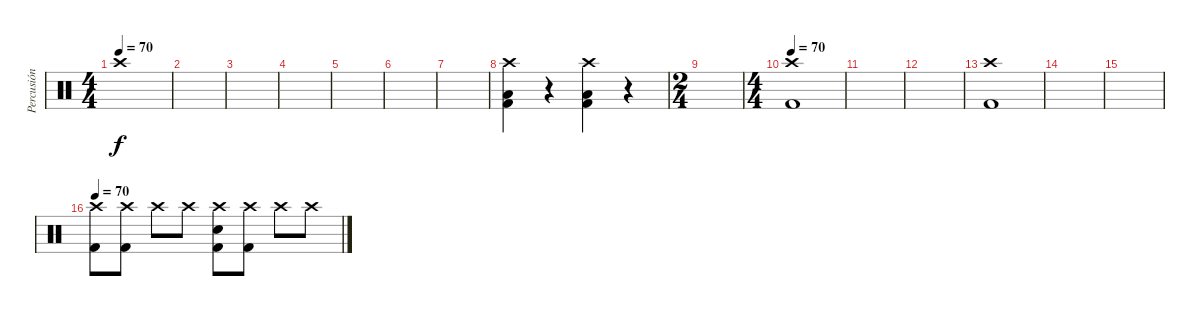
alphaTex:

\track ("Percusión" "Percusión") {instrument percussion}
\staff {score}
\articulation defaults
\ts (4 4)
\tempo 70
\clef neutral
\ks c "Crash high (hit)".1{dy f}
|
|
|
|
|
|
|
("Crash high (hit)" "Low Floor Tom (hit)" "Kick (hit) 2").4 r.4 ("Crash high (hit)" "Low Floor Tom (hit)" "Kick (hit) 2").4 r.4 |
\ts (2 4)
|
\ts (4 4)
\tempo 70
("Crash high (hit)" "Kick (hit) 2").1 |
|
|
("Crash high (hit)" "Kick (hit) 2").1 |
|
|
\tempo 70
("Crash high (hit)" "Kick (hit) 2").8 ("Crash high (hit)" "Kick (hit) 2").8 "Crash high (hit)".8 "Crash high (hit)".8 ("Crash high (hit)" "Snare (hit) 2" "Kick (hit) 2").8 ("Crash high (hit)" "Kick (hit) 2").8 "Crash high (hit)".8 "Crash high (hit)".8
